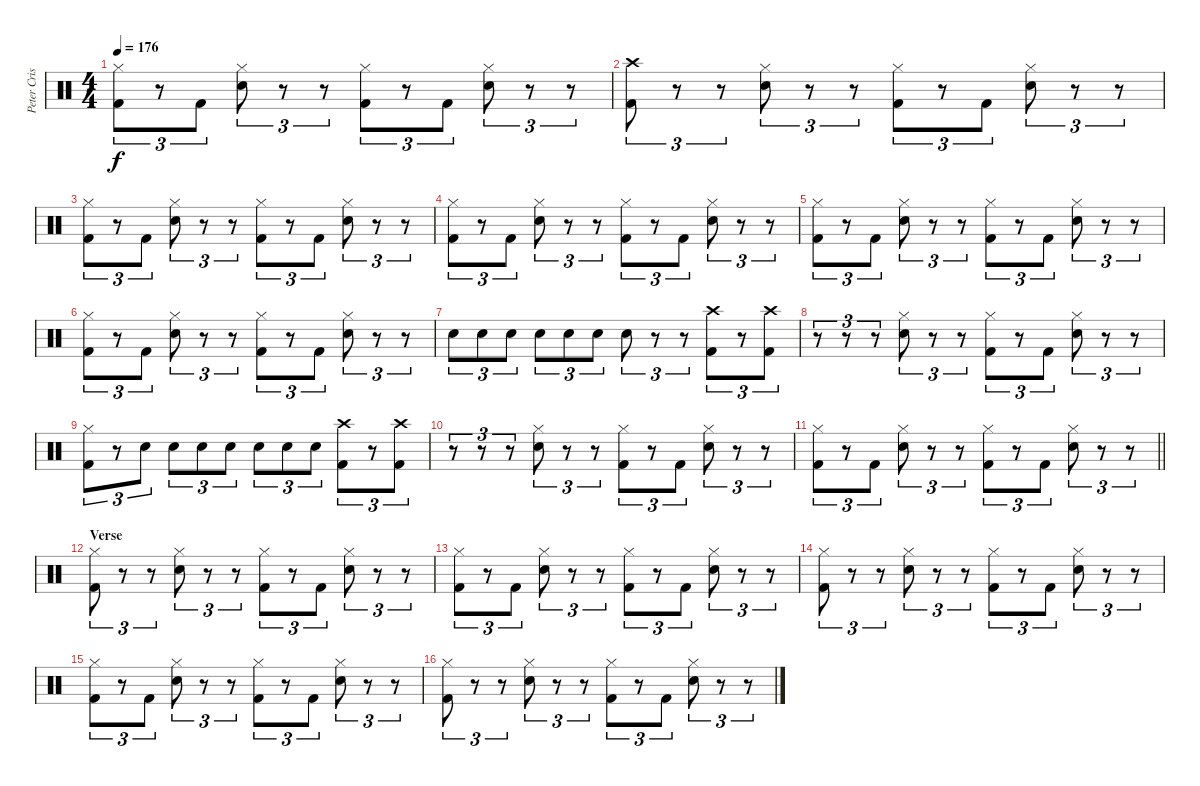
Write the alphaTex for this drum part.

\track ("Peter Criss" "Peter Cris") {instrument percussion}
\staff {score}
\articulation defaults
\ts (4 4)
\tempo 176
\clef neutral
\ks c
("Hi-Hat (closed)" "Kick (hit) 2").8{tu (3 2) dy f} r.8{tu (3 2)} "Kick (hit) 2".8{tu (3 2)} ("Hi-Hat (closed)" "Electric Snare (hit)").8{tu (3 2)} r.8{tu (3 2)} r.8{tu (3 2)} ("Hi-Hat (closed)" "Kick (hit) 2").8{tu (3 2)} r.8{tu (3 2)} "Kick (hit) 2".8{tu (3 2)} ("Hi-Hat (closed)" "Electric Snare (hit)").8{tu (3 2)} r.8{tu (3 2)} r.8{tu (3 2)} |
("Crash high (hit)" "Kick (hit) 2").8{tu (3 2)} r.8{tu (3 2)} r.8{tu (3 2)} ("Hi-Hat (closed)" "Electric Snare (hit)").8{tu (3 2)} r.8{tu (3 2)} r.8{tu (3 2)} ("Hi-Hat (closed)" "Kick (hit) 2").8{tu (3 2)} r.8{tu (3 2)} "Kick (hit) 2".8{tu (3 2)} ("Hi-Hat (closed)" "Electric Snare (hit)").8{tu (3 2)} r.8{tu (3 2)} r.8{tu (3 2)} |
("Hi-Hat (closed)" "Kick (hit) 2").8{tu (3 2)} r.8{tu (3 2)} "Kick (hit) 2".8{tu (3 2)} ("Hi-Hat (closed)" "Electric Snare (hit)").8{tu (3 2)} r.8{tu (3 2)} r.8{tu (3 2)} ("Hi-Hat (closed)" "Kick (hit) 2").8{tu (3 2)} r.8{tu (3 2)} "Kick (hit) 2".8{tu (3 2)} ("Hi-Hat (closed)" "Electric Snare (hit)").8{tu (3 2)} r.8{tu (3 2)} r.8{tu (3 2)} |
("Hi-Hat (closed)" "Kick (hit) 2").8{tu (3 2)} r.8{tu (3 2)} "Kick (hit) 2".8{tu (3 2)} ("Hi-Hat (closed)" "Electric Snare (hit)").8{tu (3 2)} r.8{tu (3 2)} r.8{tu (3 2)} ("Hi-Hat (closed)" "Kick (hit) 2").8{tu (3 2)} r.8{tu (3 2)} "Kick (hit) 2".8{tu (3 2)} ("Hi-Hat (closed)" "Electric Snare (hit)").8{tu (3 2)} r.8{tu (3 2)} r.8{tu (3 2)} |
("Hi-Hat (closed)" "Kick (hit) 2").8{tu (3 2)} r.8{tu (3 2)} "Kick (hit) 2".8{tu (3 2)} ("Hi-Hat (closed)" "Electric Snare (hit)").8{tu (3 2)} r.8{tu (3 2)} r.8{tu (3 2)} ("Hi-Hat (closed)" "Kick (hit) 2").8{tu (3 2)} r.8{tu (3 2)} "Kick (hit) 2".8{tu (3 2)} ("Hi-Hat (closed)" "Electric Snare (hit)").8{tu (3 2)} r.8{tu (3 2)} r.8{tu (3 2)} |
("Hi-Hat (closed)" "Kick (hit) 2").8{tu (3 2)} r.8{tu (3 2)} "Kick (hit) 2".8{tu (3 2)} ("Hi-Hat (closed)" "Electric Snare (hit)").8{tu (3 2)} r.8{tu (3 2)} r.8{tu (3 2)} ("Hi-Hat (closed)" "Kick (hit) 2").8{tu (3 2)} r.8{tu (3 2)} "Kick (hit) 2".8{tu (3 2)} ("Hi-Hat (closed)" "Electric Snare (hit)").8{tu (3 2)} r.8{tu (3 2)} r.8{tu (3 2)} |
"Electric Snare (hit)".8{tu (3 2)} "Electric Snare (hit)".8{tu (3 2)} "Electric Snare (hit)".8{tu (3 2)} "Electric Snare (hit)".8{tu (3 2)} "Electric Snare (hit)".8{tu (3 2)} "Electric Snare (hit)".8{tu (3 2)} "Electric Snare (hit)".8{tu (3 2)} r.8{tu (3 2)} r.8{tu (3 2)} ("Crash high (hit)" "Kick (hit) 2").8{tu (3 2)} r.8{tu (3 2)} ("Crash high (hit)" "Kick (hit) 2").8{tu (3 2)} |
r.8{tu (3 2)} r.8{tu (3 2)} r.8{tu (3 2)} ("Hi-Hat (closed)" "Electric Snare (hit)").8{tu (3 2)} r.8{tu (3 2)} r.8{tu (3 2)} ("Hi-Hat (closed)" "Kick (hit) 2").8{tu (3 2)} r.8{tu (3 2)} "Kick (hit) 2".8{tu (3 2)} ("Hi-Hat (closed)" "Electric Snare (hit)").8{tu (3 2)} r.8{tu (3 2)} r.8{tu (3 2)} |
("Hi-Hat (closed)" "Kick (hit) 2").8{tu (3 2)} r.8{tu (3 2)} "Electric Snare (hit)".8{tu (3 2)} "Electric Snare (hit)".8{tu (3 2)} "Electric Snare (hit)".8{tu (3 2)} "Electric Snare (hit)".8{tu (3 2)} "Electric Snare (hit)".8{tu (3 2)} "Electric Snare (hit)".8{tu (3 2)} "Electric Snare (hit)".8{tu (3 2)} ("Crash high (hit)" "Kick (hit) 2").8{tu (3 2)} r.8{tu (3 2)} ("Crash high (hit)" "Kick (hit) 2").8{tu (3 2)} |
r.8{tu (3 2)} r.8{tu (3 2)} r.8{tu (3 2)} ("Hi-Hat (closed)" "Electric Snare (hit)").8{tu (3 2)} r.8{tu (3 2)} r.8{tu (3 2)} ("Hi-Hat (closed)" "Kick (hit) 2").8{tu (3 2)} r.8{tu (3 2)} "Kick (hit) 2".8{tu (3 2)} ("Hi-Hat (closed)" "Electric Snare (hit)").8{tu (3 2)} r.8{tu (3 2)} r.8{tu (3 2)} |
\barLineRight lightlight
("Hi-Hat (closed)" "Kick (hit) 2").8{tu (3 2)} r.8{tu (3 2)} "Kick (hit) 2".8{tu (3 2)} ("Hi-Hat (closed)" "Electric Snare (hit)").8{tu (3 2)} r.8{tu (3 2)} r.8{tu (3 2)} ("Hi-Hat (closed)" "Kick (hit) 2").8{tu (3 2)} r.8{tu (3 2)} "Kick (hit) 2".8{tu (3 2)} ("Hi-Hat (closed)" "Electric Snare (hit)").8{tu (3 2)} r.8{tu (3 2)} r.8{tu (3 2)} |
\section ("" "Verse ")
("Hi-Hat (closed)" "Kick (hit) 2").8{tu (3 2)} r.8{tu (3 2)} r.8{tu (3 2)} ("Hi-Hat (closed)" "Electric Snare (hit)").8{tu (3 2)} r.8{tu (3 2)} r.8{tu (3 2)} ("Hi-Hat (closed)" "Kick (hit) 2").8{tu (3 2)} r.8{tu (3 2)} "Kick (hit) 2".8{tu (3 2)} ("Hi-Hat (closed)" "Electric Snare (hit)").8{tu (3 2)} r.8{tu (3 2)} r.8{tu (3 2)} |
("Hi-Hat (closed)" "Kick (hit) 2").8{tu (3 2)} r.8{tu (3 2)} "Kick (hit) 2".8{tu (3 2)} ("Hi-Hat (closed)" "Electric Snare (hit)").8{tu (3 2)} r.8{tu (3 2)} r.8{tu (3 2)} ("Hi-Hat (closed)" "Kick (hit) 2").8{tu (3 2)} r.8{tu (3 2)} "Kick (hit) 2".8{tu (3 2)} ("Hi-Hat (closed)" "Electric Snare (hit)").8{tu (3 2)} r.8{tu (3 2)} r.8{tu (3 2)} |
("Hi-Hat (closed)" "Kick (hit) 2").8{tu (3 2)} r.8{tu (3 2)} r.8{tu (3 2)} ("Hi-Hat (closed)" "Electric Snare (hit)").8{tu (3 2)} r.8{tu (3 2)} r.8{tu (3 2)} ("Hi-Hat (closed)" "Kick (hit) 2").8{tu (3 2)} r.8{tu (3 2)} "Kick (hit) 2".8{tu (3 2)} ("Hi-Hat (closed)" "Electric Snare (hit)").8{tu (3 2)} r.8{tu (3 2)} r.8{tu (3 2)} |
("Hi-Hat (closed)" "Kick (hit) 2").8{tu (3 2)} r.8{tu (3 2)} "Kick (hit) 2".8{tu (3 2)} ("Hi-Hat (closed)" "Electric Snare (hit)").8{tu (3 2)} r.8{tu (3 2)} r.8{tu (3 2)} ("Hi-Hat (closed)" "Kick (hit) 2").8{tu (3 2)} r.8{tu (3 2)} "Kick (hit) 2".8{tu (3 2)} ("Hi-Hat (closed)" "Electric Snare (hit)").8{tu (3 2)} r.8{tu (3 2)} r.8{tu (3 2)} |
("Hi-Hat (closed)" "Kick (hit) 2").8{tu (3 2)} r.8{tu (3 2)} r.8{tu (3 2)} ("Hi-Hat (closed)" "Electric Snare (hit)").8{tu (3 2)} r.8{tu (3 2)} r.8{tu (3 2)} ("Hi-Hat (closed)" "Kick (hit) 2").8{tu (3 2)} r.8{tu (3 2)} "Kick (hit) 2".8{tu (3 2)} ("Hi-Hat (closed)" "Electric Snare (hit)").8{tu (3 2)} r.8{tu (3 2)} r.8{tu (3 2)}
